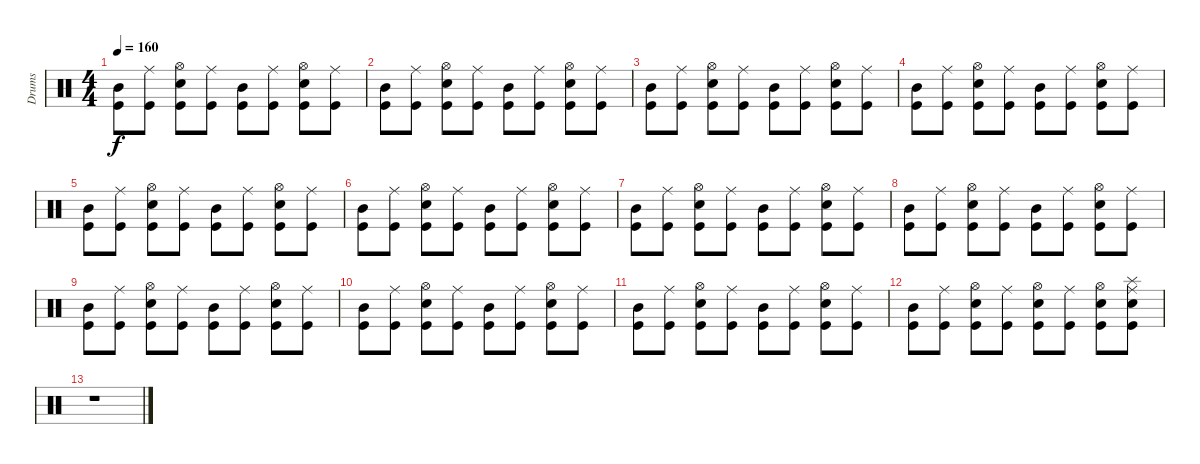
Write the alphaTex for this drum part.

\track ("Drums" "Drums") {instrument percussion}
\staff {score}
\articulation defaults
\ts (4 4)
\tempo 160
\clef neutral
\ks c
("Mid Tom (hit)" "Kick (hit)").8{dy f} ("Kick (hit)" "Ride (middle)").8 ("Hi-Hat (open)" "Snare (hit) 2" "Kick (hit)").8 ("Kick (hit)" "Ride (middle)").8 ("Mid Tom (hit)" "Kick (hit)").8 ("Kick (hit)" "Ride (middle)").8 ("Hi-Hat (open)" "Snare (hit) 2" "Kick (hit)").8 ("Kick (hit)" "Ride (middle)").8 |
("Mid Tom (hit)" "Kick (hit)").8 ("Kick (hit)" "Ride (middle)").8 ("Hi-Hat (open)" "Snare (hit) 2" "Kick (hit)").8 ("Kick (hit)" "Ride (middle)").8 ("Mid Tom (hit)" "Kick (hit)").8 ("Kick (hit)" "Ride (middle)").8 ("Hi-Hat (open)" "Snare (hit) 2" "Kick (hit)").8 ("Kick (hit)" "Ride (middle)").8 |
("Mid Tom (hit)" "Kick (hit)").8 ("Kick (hit)" "Ride (middle)").8 ("Hi-Hat (open)" "Snare (hit) 2" "Kick (hit)").8 ("Kick (hit)" "Ride (middle)").8 ("Mid Tom (hit)" "Kick (hit)").8 ("Kick (hit)" "Ride (middle)").8 ("Hi-Hat (open)" "Snare (hit) 2" "Kick (hit)").8 ("Kick (hit)" "Ride (middle)").8 |
("Mid Tom (hit)" "Kick (hit)").8 ("Kick (hit)" "Ride (middle)").8 ("Hi-Hat (open)" "Snare (hit) 2" "Kick (hit)").8 ("Kick (hit)" "Ride (middle)").8 ("Mid Tom (hit)" "Kick (hit)").8 ("Kick (hit)" "Ride (middle)").8 ("Hi-Hat (open)" "Snare (hit) 2" "Kick (hit)").8 ("Kick (hit)" "Ride (middle)").8 |
("Mid Tom (hit)" "Kick (hit)").8 ("Kick (hit)" "Ride (middle)").8 ("Hi-Hat (open)" "Snare (hit) 2" "Kick (hit)").8 ("Kick (hit)" "Ride (middle)").8 ("Mid Tom (hit)" "Kick (hit)").8 ("Kick (hit)" "Ride (middle)").8 ("Hi-Hat (open)" "Snare (hit) 2" "Kick (hit)").8 ("Kick (hit)" "Ride (middle)").8 |
("Mid Tom (hit)" "Kick (hit)").8 ("Kick (hit)" "Ride (middle)").8 ("Hi-Hat (open)" "Snare (hit) 2" "Kick (hit)").8 ("Kick (hit)" "Ride (middle)").8 ("Mid Tom (hit)" "Kick (hit)").8 ("Kick (hit)" "Ride (middle)").8 ("Hi-Hat (open)" "Snare (hit) 2" "Kick (hit)").8 ("Kick (hit)" "Ride (middle)").8 |
("Mid Tom (hit)" "Kick (hit)").8 ("Kick (hit)" "Ride (middle)").8 ("Hi-Hat (open)" "Snare (hit) 2" "Kick (hit)").8 ("Kick (hit)" "Ride (middle)").8 ("Mid Tom (hit)" "Kick (hit)").8 ("Kick (hit)" "Ride (middle)").8 ("Hi-Hat (open)" "Snare (hit) 2" "Kick (hit)").8 ("Kick (hit)" "Ride (middle)").8 |
("Mid Tom (hit)" "Kick (hit)").8 ("Kick (hit)" "Ride (middle)").8 ("Hi-Hat (open)" "Snare (hit) 2" "Kick (hit)").8 ("Kick (hit)" "Ride (middle)").8 ("Mid Tom (hit)" "Kick (hit)").8 ("Kick (hit)" "Ride (middle)").8 ("Hi-Hat (open)" "Snare (hit) 2" "Kick (hit)").8 ("Kick (hit)" "Ride (middle)").8 |
("Mid Tom (hit)" "Kick (hit)").8 ("Kick (hit)" "Ride (middle)").8 ("Hi-Hat (open)" "Snare (hit) 2" "Kick (hit)").8 ("Kick (hit)" "Ride (middle)").8 ("Mid Tom (hit)" "Kick (hit)").8 ("Kick (hit)" "Ride (middle)").8 ("Hi-Hat (open)" "Snare (hit) 2" "Kick (hit)").8 ("Kick (hit)" "Ride (middle)").8 |
("Mid Tom (hit)" "Kick (hit)").8 ("Kick (hit)" "Ride (middle)").8 ("Hi-Hat (open)" "Snare (hit) 2" "Kick (hit)").8 ("Kick (hit)" "Ride (middle)").8 ("Mid Tom (hit)" "Kick (hit)").8 ("Kick (hit)" "Ride (middle)").8 ("Hi-Hat (open)" "Snare (hit) 2" "Kick (hit)").8 ("Kick (hit)" "Ride (middle)").8 |
("Mid Tom (hit)" "Kick (hit)").8 ("Kick (hit)" "Ride (middle)").8 ("Hi-Hat (open)" "Snare (hit) 2" "Kick (hit)").8 ("Kick (hit)" "Ride (middle)").8 ("Mid Tom (hit)" "Kick (hit)").8 ("Kick (hit)" "Ride (middle)").8 ("Hi-Hat (open)" "Snare (hit) 2" "Kick (hit)").8 ("Kick (hit)" "Ride (middle)").8 |
("Mid Tom (hit)" "Kick (hit)").8 ("Kick (hit)" "Ride (middle)").8 ("Hi-Hat (open)" "Snare (hit) 2" "Kick (hit)").8 ("Kick (hit)" "Ride (middle)").8 ("Hi-Hat (open)" "Snare (hit) 2" "Kick (hit)").8 ("Kick (hit)" "Ride (middle)").8 ("Hi-Hat (open)" "Snare (hit) 2" "Kick (hit)").8 ("Splash (hit)" "Snare (hit) 2" "Kick (hit)" "Ride (middle)").8 |
r.1
